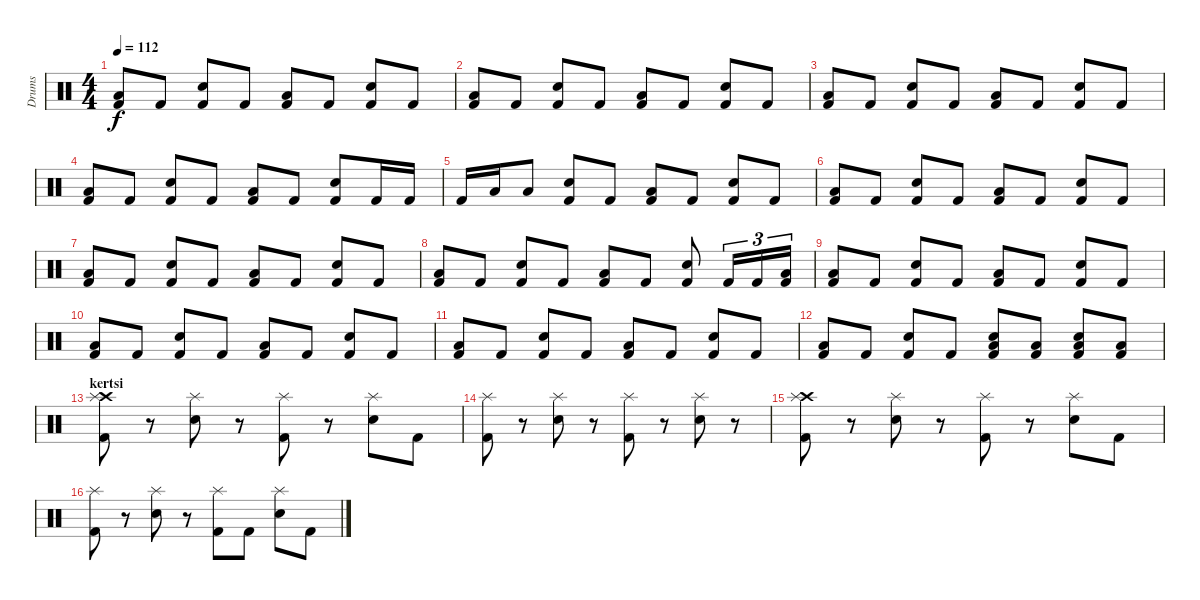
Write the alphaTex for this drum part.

\track ("Drums" "Drums") {instrument percussion}
\staff {score}
\articulation defaults
\ts (4 4)
\tempo 112
\clef neutral
\ks c
("Low Floor Tom (hit)" "Kick (hit) 2").8{dy f} "Kick (hit) 2".8 ("Snare (hit) 2" "Kick (hit) 2").8 "Kick (hit) 2".8 ("Low Floor Tom (hit)" "Kick (hit) 2").8 "Kick (hit) 2".8 ("Snare (hit) 2" "Kick (hit) 2").8 "Kick (hit) 2".8 |
("Low Floor Tom (hit)" "Kick (hit) 2").8 "Kick (hit) 2".8 ("Snare (hit) 2" "Kick (hit) 2").8 "Kick (hit) 2".8 ("Low Floor Tom (hit)" "Kick (hit) 2").8 "Kick (hit) 2".8 ("Snare (hit) 2" "Kick (hit) 2").8 "Kick (hit) 2".8 |
("Low Floor Tom (hit)" "Kick (hit) 2").8 "Kick (hit) 2".8 ("Snare (hit) 2" "Kick (hit) 2").8 "Kick (hit) 2".8 ("Low Floor Tom (hit)" "Kick (hit) 2").8 "Kick (hit) 2".8 ("Snare (hit) 2" "Kick (hit) 2").8 "Kick (hit) 2".8 |
("Low Floor Tom (hit)" "Kick (hit) 2").8 "Kick (hit) 2".8 ("Snare (hit) 2" "Kick (hit) 2").8 "Kick (hit) 2".8 ("Low Floor Tom (hit)" "Kick (hit) 2").8 "Kick (hit) 2".8 ("Snare (hit) 2" "Kick (hit) 2").8 "Kick (hit) 2".16 "Kick (hit) 2".16 |
"Kick (hit) 2".16 "Low Floor Tom (hit)".16 "Low Floor Tom (hit)".8 ("Snare (hit) 2" "Kick (hit) 2").8 "Kick (hit) 2".8 ("Low Floor Tom (hit)" "Kick (hit) 2").8 "Kick (hit) 2".8 ("Snare (hit) 2" "Kick (hit) 2").8 "Kick (hit) 2".8 |
("Low Floor Tom (hit)" "Kick (hit) 2").8 "Kick (hit) 2".8 ("Snare (hit) 2" "Kick (hit) 2").8 "Kick (hit) 2".8 ("Low Floor Tom (hit)" "Kick (hit) 2").8 "Kick (hit) 2".8 ("Snare (hit) 2" "Kick (hit) 2").8 "Kick (hit) 2".8 |
("Low Floor Tom (hit)" "Kick (hit) 2").8 "Kick (hit) 2".8 ("Snare (hit) 2" "Kick (hit) 2").8 "Kick (hit) 2".8 ("Low Floor Tom (hit)" "Kick (hit) 2").8 "Kick (hit) 2".8 ("Snare (hit) 2" "Kick (hit) 2").8 "Kick (hit) 2".8 |
("Low Floor Tom (hit)" "Kick (hit) 2").8 "Kick (hit) 2".8 ("Snare (hit) 2" "Kick (hit) 2").8 "Kick (hit) 2".8 ("Low Floor Tom (hit)" "Kick (hit) 2").8 "Kick (hit) 2".8 ("Snare (hit) 2" "Kick (hit) 2").8 "Kick (hit) 2".16{tu (3 2)} "Kick (hit) 2".16{tu (3 2)} ("Low Floor Tom (hit)" "Kick (hit) 2").16{tu (3 2)} |
("Low Floor Tom (hit)" "Kick (hit) 2").8 "Kick (hit) 2".8 ("Snare (hit) 2" "Kick (hit) 2").8 "Kick (hit) 2".8 ("Low Floor Tom (hit)" "Kick (hit) 2").8 "Kick (hit) 2".8 ("Snare (hit) 2" "Kick (hit) 2").8 "Kick (hit) 2".8 |
("Low Floor Tom (hit)" "Kick (hit) 2").8 "Kick (hit) 2".8 ("Snare (hit) 2" "Kick (hit) 2").8 "Kick (hit) 2".8 ("Low Floor Tom (hit)" "Kick (hit) 2").8 "Kick (hit) 2".8 ("Snare (hit) 2" "Kick (hit) 2").8 "Kick (hit) 2".8 |
("Low Floor Tom (hit)" "Kick (hit) 2").8 "Kick (hit) 2".8 ("Snare (hit) 2" "Kick (hit) 2").8 "Kick (hit) 2".8 ("Low Floor Tom (hit)" "Kick (hit) 2").8 "Kick (hit) 2".8 ("Snare (hit) 2" "Kick (hit) 2").8 "Kick (hit) 2".8 |
("Low Floor Tom (hit)" "Kick (hit) 2").8 "Kick (hit) 2".8 ("Snare (hit) 2" "Kick (hit) 2").8 "Kick (hit) 2".8 ("Snare (hit) 2" "Low Floor Tom (hit)" "Kick (hit) 2").8 ("Low Floor Tom (hit)" "Kick (hit) 2").8 ("Snare (hit) 2" "Low Floor Tom (hit)" "Kick (hit) 2").8 ("Low Floor Tom (hit)" "Kick (hit) 2").8 |
\section ("" "kertsi")
("Crash high (hit)" "Splash (hit)" "Kick (hit) 2").8 r.8 ("Splash (hit)" "Snare (hit) 2").8 r.8 ("Splash (hit)" "Kick (hit) 2").8 r.8 ("Splash (hit)" "Snare (hit) 2").8 "Kick (hit) 2".8 |
("Splash (hit)" "Kick (hit) 2").8 r.8 ("Splash (hit)" "Snare (hit) 2").8 r.8 ("Splash (hit)" "Kick (hit) 2").8 r.8 ("Splash (hit)" "Snare (hit) 2").8 r.8 |
("Crash high (hit)" "Splash (hit)" "Kick (hit) 2").8 r.8 ("Splash (hit)" "Snare (hit) 2").8 r.8 ("Splash (hit)" "Kick (hit) 2").8 r.8 ("Splash (hit)" "Snare (hit) 2").8 "Kick (hit) 2".8 |
("Splash (hit)" "Kick (hit) 2").8 r.8 ("Splash (hit)" "Snare (hit) 2").8 r.8 ("Splash (hit)" "Kick (hit) 2").8 "Kick (hit) 2".8 ("Splash (hit)" "Snare (hit) 2").8 "Kick (hit) 2".8
